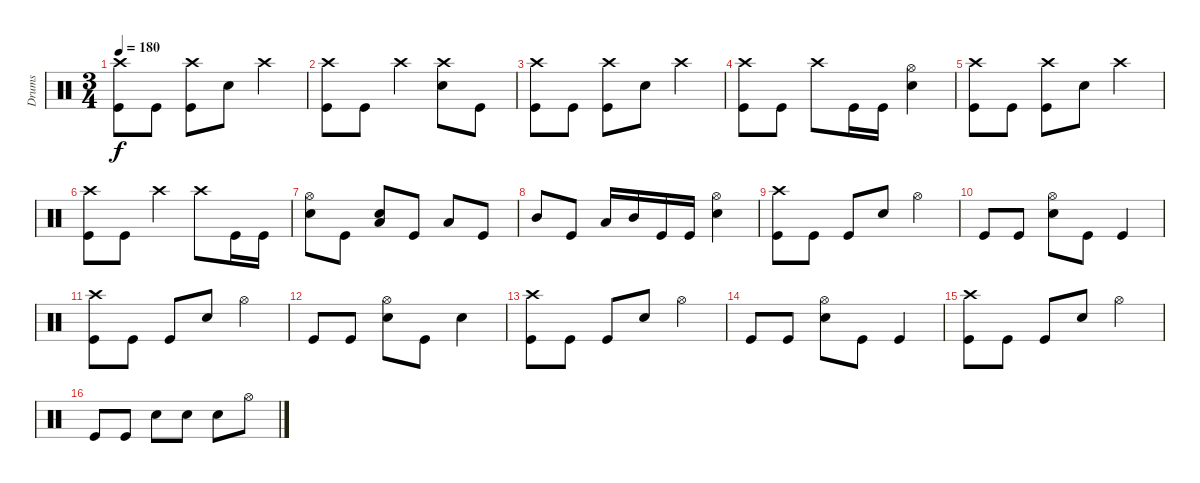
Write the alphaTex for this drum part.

\track ("Drums" "Drums") {instrument percussion}
\staff {score}
\articulation defaults
\ts (3 4)
\tempo 180
\clef neutral
\ks c
("Crash high (hit)" "Kick (hit)").8{dy f} "Kick (hit)".8 ("Crash high (hit)" "Kick (hit)").8 "Electric Snare (hit)".8 "Crash high (hit)".4 |
("Crash high (hit)" "Kick (hit)").8 "Kick (hit)".8 "Crash high (hit)".4 ("Crash high (hit)" "Electric Snare (hit)").8 "Kick (hit)".8 |
("Crash high (hit)" "Kick (hit)").8 "Kick (hit)".8 ("Crash high (hit)" "Kick (hit)").8 "Electric Snare (hit)".8 "Crash high (hit)".4 |
("Crash high (hit)" "Kick (hit)").8 "Kick (hit)".8 "Crash high (hit)".8 "Kick (hit)".16 "Kick (hit)".16 ("Hi-Hat (open)" "Electric Snare (hit)").4 |
("Crash high (hit)" "Kick (hit)").8 "Kick (hit)".8 ("Crash high (hit)" "Kick (hit)").8 "Electric Snare (hit)".8 "Crash high (hit)".4 |
("Crash high (hit)" "Kick (hit)").8 "Kick (hit)".8 "Crash high (hit)".4 "Crash high (hit)".8 "Kick (hit)".16 "Kick (hit)".16 |
("Hi-Hat (open)" "Electric Snare (hit)").8 "Kick (hit)".8 ("Electric Snare (hit)" "Low Tom (hit)").8 "Kick (hit)".8 "Low Tom (hit)".8 "Kick (hit)".8 |
"Mid Tom (hit)".8 "Kick (hit)".8 "Low Tom (hit)".16 "Mid Tom (hit)".16 "Kick (hit)".16 "Kick (hit)".16 ("Hi-Hat (open)" "Electric Snare (hit)").4 |
("Crash high (hit)" "Kick (hit)").8 "Kick (hit)".8 "Kick (hit)".8 "Electric Snare (hit)".8 "Hi-Hat (open)".4 |
"Kick (hit)".8 "Kick (hit)".8 ("Hi-Hat (open)" "Electric Snare (hit)").8 "Kick (hit)".8 "Kick (hit)".4 |
("Crash high (hit)" "Kick (hit)").8 "Kick (hit)".8 "Kick (hit)".8 "Electric Snare (hit)".8 "Hi-Hat (open)".4 |
"Kick (hit)".8 "Kick (hit)".8 ("Hi-Hat (open)" "Electric Snare (hit)").8 "Kick (hit)".8 "Electric Snare (hit)".4 |
("Crash high (hit)" "Kick (hit)").8 "Kick (hit)".8 "Kick (hit)".8 "Electric Snare (hit)".8 "Hi-Hat (open)".4 |
"Kick (hit)".8 "Kick (hit)".8 ("Hi-Hat (open)" "Electric Snare (hit)").8 "Kick (hit)".8 "Kick (hit)".4 |
("Crash high (hit)" "Kick (hit)").8 "Kick (hit)".8 "Kick (hit)".8 "Electric Snare (hit)".8 "Hi-Hat (open)".4 |
"Kick (hit)".8 "Kick (hit)".8 "Electric Snare (hit)".8 "Electric Snare (hit)".8 "Electric Snare (hit)".8 "Hi-Hat (open)".8
